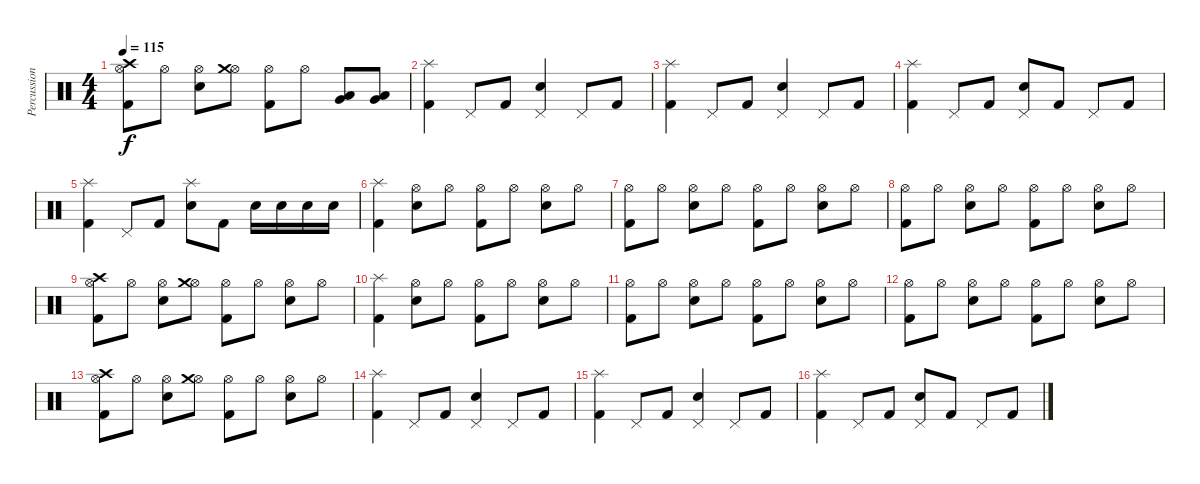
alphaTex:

\track ("Percussion" "Percussion") {instrument percussion}
\staff {score}
\articulation defaults
\ts (4 4)
\tempo 115
\clef neutral
\ks c
("Kick (hit) 2" "Hi-Hat (open)" "Crash high (hit)").8{dy f} "Hi-Hat (open)".8 ("Electric Snare (hit)" "Hi-Hat (open)").8 ("Hi-Hat (open)" "Crash medium (hit)").8 ("Kick (hit) 2" "Hi-Hat (open)").8 "Hi-Hat (open)".8 ("Low Tom (hit)" "Very Low Tom (hit)").8 ("Very Low Tom (hit)" "Low Floor Tom (hit)").8 |
("Kick (hit) 2" "Splash (hit)").4 "Pedal Hi-Hat (hit)".8 "Kick (hit) 2".8 ("Electric Snare (hit)" "Pedal Hi-Hat (hit)").4 "Pedal Hi-Hat (hit)".8 "Kick (hit) 2".8 |
("Kick (hit) 2" "Splash (hit)").4 "Pedal Hi-Hat (hit)".8 "Kick (hit) 2".8 ("Electric Snare (hit)" "Pedal Hi-Hat (hit)").4 "Pedal Hi-Hat (hit)".8 "Kick (hit) 2".8 |
("Kick (hit) 2" "Splash (hit)").4 "Pedal Hi-Hat (hit)".8 "Kick (hit) 2".8 ("Electric Snare (hit)" "Pedal Hi-Hat (hit)").8 "Kick (hit) 2".8 "Pedal Hi-Hat (hit)".8 "Kick (hit) 2".8 |
("Kick (hit) 2" "Splash (hit)").4 "Pedal Hi-Hat (hit)".8 "Kick (hit) 2".8 ("Electric Snare (hit)" "Splash (hit)").8 "Kick (hit) 2".8 "Electric Snare (hit)".16 "Electric Snare (hit)".16 "Electric Snare (hit)".16 "Electric Snare (hit)".16 |
("Kick (hit) 2" "Splash (hit)").4 ("Electric Snare (hit)" "Hi-Hat (open)").8 "Hi-Hat (open)".8 ("Kick (hit) 2" "Hi-Hat (open)").8 "Hi-Hat (open)".8 ("Electric Snare (hit)" "Hi-Hat (open)").8 "Hi-Hat (open)".8 |
("Kick (hit) 2" "Hi-Hat (open)").8 "Hi-Hat (open)".8 ("Electric Snare (hit)" "Hi-Hat (open)").8 "Hi-Hat (open)".8 ("Kick (hit) 2" "Hi-Hat (open)").8 "Hi-Hat (open)".8 ("Electric Snare (hit)" "Hi-Hat (open)").8 "Hi-Hat (open)".8 |
("Kick (hit) 2" "Hi-Hat (open)").8 "Hi-Hat (open)".8 ("Electric Snare (hit)" "Hi-Hat (open)").8 "Hi-Hat (open)".8 ("Kick (hit) 2" "Hi-Hat (open)").8 "Hi-Hat (open)".8 ("Electric Snare (hit)" "Hi-Hat (open)").8 "Hi-Hat (open)".8 |
("Kick (hit) 2" "Hi-Hat (open)" "Crash high (hit)").8 "Hi-Hat (open)".8 ("Electric Snare (hit)" "Hi-Hat (open)").8 ("Hi-Hat (open)" "Crash medium (hit)").8 ("Kick (hit) 2" "Hi-Hat (open)").8 "Hi-Hat (open)".8 ("Electric Snare (hit)" "Hi-Hat (open)").8 "Hi-Hat (open)".8 |
("Kick (hit) 2" "Splash (hit)").4 ("Electric Snare (hit)" "Hi-Hat (open)").8 "Hi-Hat (open)".8 ("Kick (hit) 2" "Hi-Hat (open)").8 "Hi-Hat (open)".8 ("Electric Snare (hit)" "Hi-Hat (open)").8 "Hi-Hat (open)".8 |
("Kick (hit) 2" "Hi-Hat (open)").8 "Hi-Hat (open)".8 ("Electric Snare (hit)" "Hi-Hat (open)").8 "Hi-Hat (open)".8 ("Kick (hit) 2" "Hi-Hat (open)").8 "Hi-Hat (open)".8 ("Electric Snare (hit)" "Hi-Hat (open)").8 "Hi-Hat (open)".8 |
("Kick (hit) 2" "Hi-Hat (open)").8 "Hi-Hat (open)".8 ("Electric Snare (hit)" "Hi-Hat (open)").8 "Hi-Hat (open)".8 ("Kick (hit) 2" "Hi-Hat (open)").8 "Hi-Hat (open)".8 ("Electric Snare (hit)" "Hi-Hat (open)").8 "Hi-Hat (open)".8 |
("Kick (hit) 2" "Hi-Hat (open)" "Crash high (hit)").8 "Hi-Hat (open)".8 ("Electric Snare (hit)" "Hi-Hat (open)").8 ("Hi-Hat (open)" "Crash medium (hit)").8 ("Kick (hit) 2" "Hi-Hat (open)").8 "Hi-Hat (open)".8 ("Electric Snare (hit)" "Hi-Hat (open)").8 "Hi-Hat (open)".8 |
("Kick (hit) 2" "Splash (hit)").4 "Pedal Hi-Hat (hit)".8 "Kick (hit) 2".8 ("Electric Snare (hit)" "Pedal Hi-Hat (hit)").4 "Pedal Hi-Hat (hit)".8 "Kick (hit) 2".8 |
("Kick (hit) 2" "Splash (hit)").4 "Pedal Hi-Hat (hit)".8 "Kick (hit) 2".8 ("Electric Snare (hit)" "Pedal Hi-Hat (hit)").4 "Pedal Hi-Hat (hit)".8 "Kick (hit) 2".8 |
("Kick (hit) 2" "Splash (hit)").4 "Pedal Hi-Hat (hit)".8 "Kick (hit) 2".8 ("Electric Snare (hit)" "Pedal Hi-Hat (hit)").8 "Kick (hit) 2".8 "Pedal Hi-Hat (hit)".8 "Kick (hit) 2".8
